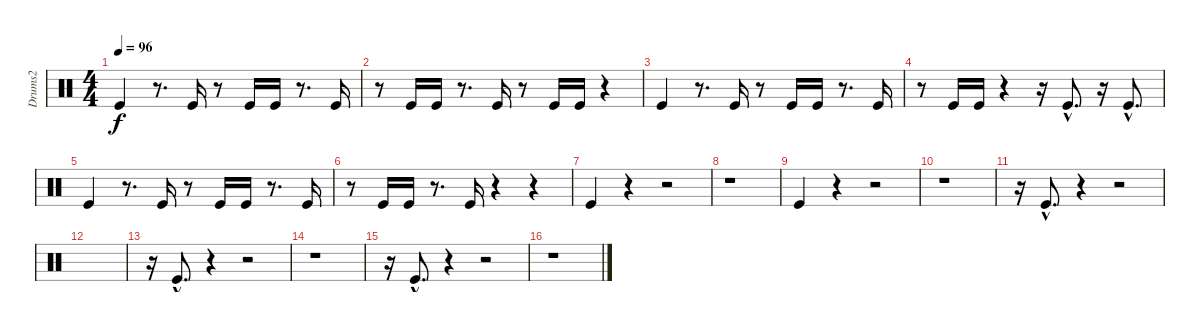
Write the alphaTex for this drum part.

\track ("Drums2" "Drums2") {instrument percussion}
\staff {score}
\articulation defaults
\ts (4 4)
\tempo 96
\clef neutral
\ks c "Kick (hit)".4{dy f}
r.8{d} "Kick (hit)".16 r.8 "Kick (hit)".16 "Kick (hit)".16 r.8{d} "Kick (hit)".16 |
r.8 "Kick (hit)".16 "Kick (hit)".16 r.8{d} "Kick (hit)".16 r.8 "Kick (hit)".16 "Kick (hit)".16 r.4 |
"Kick (hit)".4 r.8{d} "Kick (hit)".16 r.8 "Kick (hit)".16 "Kick (hit)".16 r.8{d} "Kick (hit)".16 |
r.8 "Kick (hit)".16 "Kick (hit)".16 r.4 r.16 "Kick (hit)"{hac}.8{d} r.16 "Kick (hit)"{hac}.8{d} |
"Kick (hit)".4 r.8{d} "Kick (hit)".16 r.8 "Kick (hit)".16 "Kick (hit)".16 r.8{d} "Kick (hit)".16 |
r.8 "Kick (hit)".16 "Kick (hit)".16 r.8{d} "Kick (hit)".16 r.4 r.4 |
"Kick (hit)".4 r.4 r.2 |
r.1 |
"Kick (hit)".4 r.4 r.2 |
r.1 |
r.16 "Kick (hit)"{hac}.8{d} r.4 r.2 |
|
r.16 "Kick (hit)"{hac}.8{d} r.4 r.2 |
r.1 |
r.16 "Kick (hit)"{hac}.8{d} r.4 r.2 |
r.1
